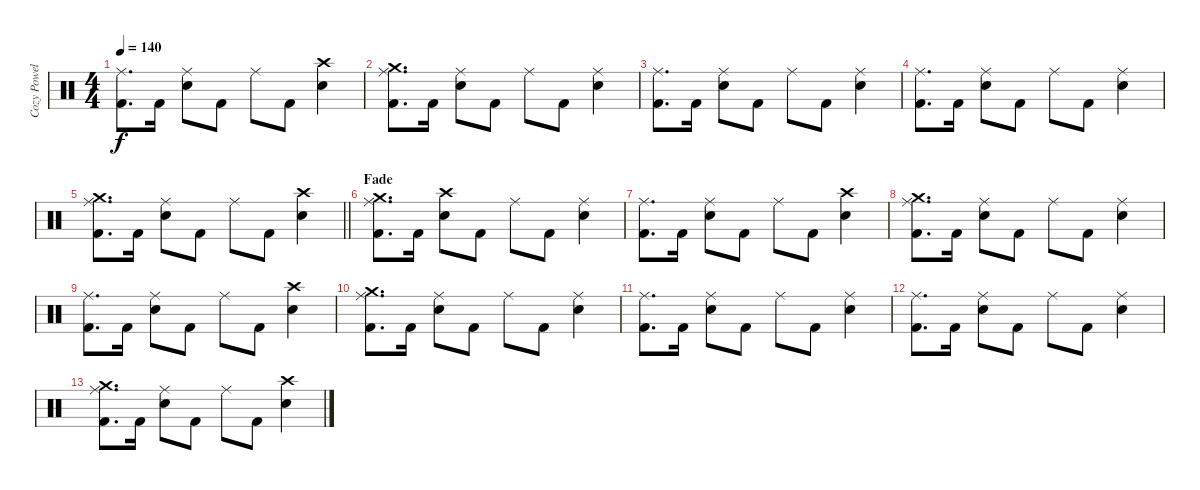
\track ("Cozy Powell" "Cozy Powel") {instrument percussion}
\staff {score}
\articulation defaults
\ts (4 4)
\tempo 140
\clef neutral
\ks c
("Ride (middle)" "Kick (hit) 2").8{d dy f} "Kick (hit) 2".16 ("Ride (middle)" "Snare (hit) 2").8 "Kick (hit) 2".8 "Ride (middle)".8 "Kick (hit) 2".8 ("Crash high (hit)" "Snare (hit) 2").4 |
("Crash medium (hit)" "Ride (middle)" "Kick (hit) 2").8{d} "Kick (hit) 2".16 ("Ride (middle)" "Snare (hit) 2").8 "Kick (hit) 2".8 "Ride (middle)".8 "Kick (hit) 2".8 ("Ride (middle)" "Snare (hit) 2").4 |
("Ride (middle)" "Kick (hit) 2").8{d} "Kick (hit) 2".16 ("Ride (middle)" "Snare (hit) 2").8 "Kick (hit) 2".8 "Ride (middle)".8 "Kick (hit) 2".8 ("Ride (middle)" "Snare (hit) 2").4 |
("Ride (middle)" "Kick (hit) 2").8{d} "Kick (hit) 2".16 ("Ride (middle)" "Snare (hit) 2").8 "Kick (hit) 2".8 "Ride (middle)".8 "Kick (hit) 2".8 ("Ride (middle)" "Snare (hit) 2").4 |
\barLineRight lightlight
("Crash medium (hit)" "Ride (middle)" "Kick (hit) 2").8{d} "Kick (hit) 2".16 ("Ride (middle)" "Snare (hit) 2").8 "Kick (hit) 2".8 "Ride (middle)".8 "Kick (hit) 2".8 ("Crash high (hit)" "Snare (hit) 2").4 |
\section ("" "Fade")
("Crash medium (hit)" "Ride (middle)" "Kick (hit) 2").8{d} "Kick (hit) 2".16 ("Crash high (hit)" "Snare (hit) 2").8 "Kick (hit) 2".8 "Ride (middle)".8 "Kick (hit) 2".8 ("Ride (middle)" "Snare (hit) 2").4 |
("Ride (middle)" "Kick (hit) 2").8{d} "Kick (hit) 2".16 ("Ride (middle)" "Snare (hit) 2").8 "Kick (hit) 2".8 "Ride (middle)".8 "Kick (hit) 2".8 ("Crash high (hit)" "Snare (hit) 2").4 |
("Crash medium (hit)" "Ride (middle)" "Kick (hit) 2").8{d} "Kick (hit) 2".16 ("Ride (middle)" "Snare (hit) 2").8 "Kick (hit) 2".8 "Ride (middle)".8 "Kick (hit) 2".8 ("Ride (middle)" "Snare (hit) 2").4 |
("Ride (middle)" "Kick (hit) 2").8{d} "Kick (hit) 2".16 ("Ride (middle)" "Snare (hit) 2").8 "Kick (hit) 2".8 "Ride (middle)".8 "Kick (hit) 2".8 ("Crash high (hit)" "Snare (hit) 2").4 |
("Crash medium (hit)" "Ride (middle)" "Kick (hit) 2").8{d} "Kick (hit) 2".16 ("Ride (middle)" "Snare (hit) 2").8 "Kick (hit) 2".8 "Ride (middle)".8 "Kick (hit) 2".8 ("Ride (middle)" "Snare (hit) 2").4 |
("Ride (middle)" "Kick (hit) 2").8{d} "Kick (hit) 2".16 ("Ride (middle)" "Snare (hit) 2").8 "Kick (hit) 2".8 "Ride (middle)".8 "Kick (hit) 2".8 ("Ride (middle)" "Snare (hit) 2").4 |
("Ride (middle)" "Kick (hit) 2").8{d} "Kick (hit) 2".16 ("Ride (middle)" "Snare (hit) 2").8 "Kick (hit) 2".8 "Ride (middle)".8 "Kick (hit) 2".8 ("Ride (middle)" "Snare (hit) 2").4 |
("Crash medium (hit)" "Ride (middle)" "Kick (hit) 2").8{d} "Kick (hit) 2".16 ("Ride (middle)" "Snare (hit) 2").8 "Kick (hit) 2".8 "Ride (middle)".8 "Kick (hit) 2".8 ("Crash high (hit)" "Snare (hit) 2").4
